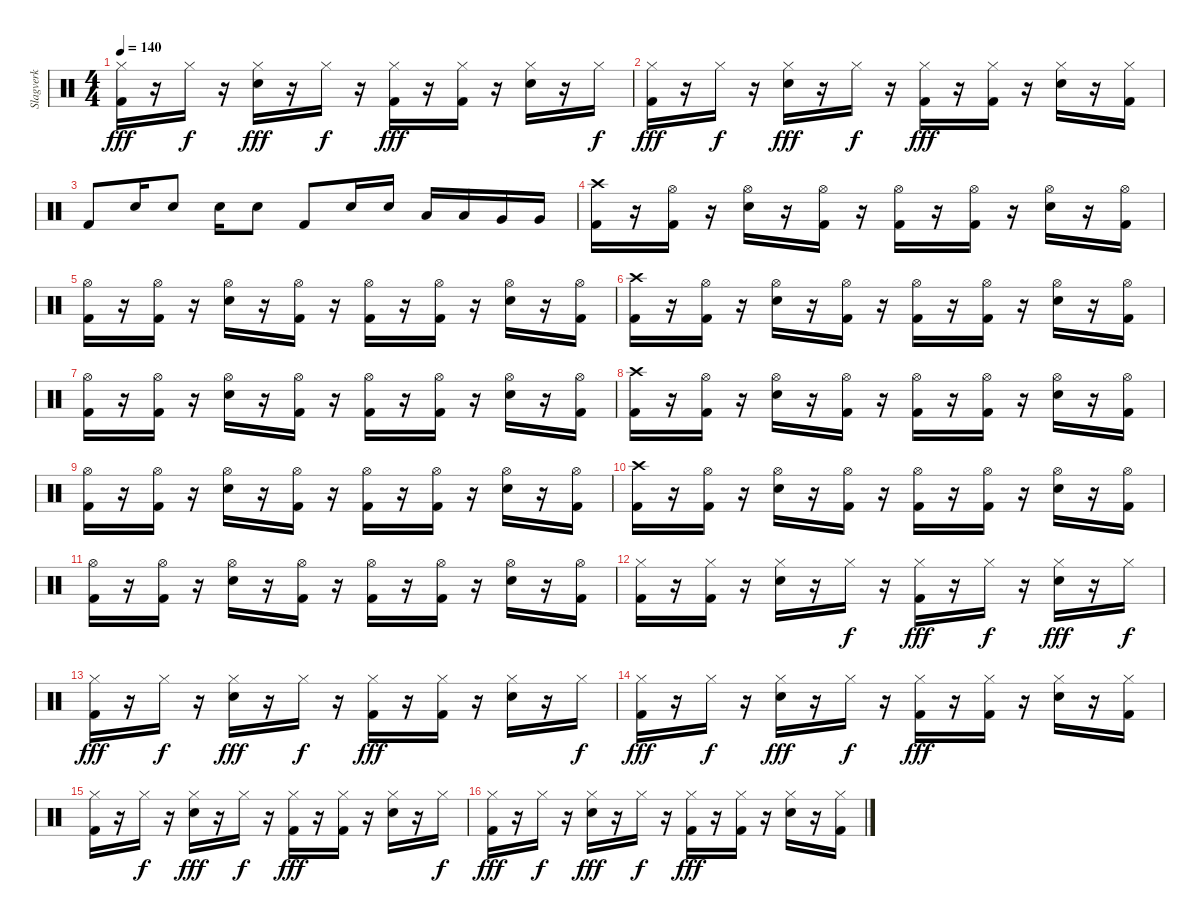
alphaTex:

\track ("Slagverk" "Slagverk") {instrument percussion}
\staff {score}
\articulation defaults
\ts (4 4)
\tempo 140
\clef neutral
\ks c
("Hi-Hat (closed)" "Kick (hit) 2").16{dy fff} r.16 "Hi-Hat (closed)".16{dy f} r.16 ("Hi-Hat (closed)" "Electric Snare (hit)").16{dy fff} r.16 "Hi-Hat (closed)".16{dy f} r.16 ("Hi-Hat (closed)" "Kick (hit) 2").16{dy fff} r.16 ("Hi-Hat (closed)" "Kick (hit) 2").16 r.16 ("Hi-Hat (closed)" "Electric Snare (hit)").16 r.16 "Hi-Hat (closed)".16{dy f} |
("Hi-Hat (closed)" "Kick (hit) 2").16{dy fff} r.16 "Hi-Hat (closed)".16{dy f} r.16 ("Hi-Hat (closed)" "Electric Snare (hit)").16{dy fff} r.16 "Hi-Hat (closed)".16{dy f} r.16 ("Hi-Hat (closed)" "Kick (hit) 2").16{dy fff} r.16 ("Hi-Hat (closed)" "Kick (hit) 2").16 r.16 ("Hi-Hat (closed)" "Electric Snare (hit)").16 r.16 ("Hi-Hat (closed)" "Kick (hit) 2").16 |
"Kick (hit) 2".8 "Electric Snare (hit)".16 "Electric Snare (hit)".8 "Electric Snare (hit)".16 "Electric Snare (hit)".8 "Kick (hit) 2".8 "Electric Snare (hit)".16 "Electric Snare (hit)".16 "Low Tom (hit)".16 "Low Tom (hit)".16 "Very Low Tom (hit)".16 "Very Low Tom (hit)".16 |
("Crash high (hit)" "Kick (hit) 2").16 r.16 ("Hi-Hat (open)" "Kick (hit) 2").16 r.16 ("Hi-Hat (open)" "Electric Snare (hit)").16 r.16 ("Hi-Hat (open)" "Kick (hit) 2").16 r.16 ("Hi-Hat (open)" "Kick (hit) 2").16 r.16 ("Hi-Hat (open)" "Kick (hit) 2").16 r.16 ("Hi-Hat (open)" "Electric Snare (hit)").16 r.16 ("Hi-Hat (open)" "Kick (hit) 2").16 |
("Hi-Hat (open)" "Kick (hit) 2").16 r.16 ("Hi-Hat (open)" "Kick (hit) 2").16 r.16 ("Hi-Hat (open)" "Electric Snare (hit)").16 r.16 ("Hi-Hat (open)" "Kick (hit) 2").16 r.16 ("Hi-Hat (open)" "Kick (hit) 2").16 r.16 ("Hi-Hat (open)" "Kick (hit) 2").16 r.16 ("Hi-Hat (open)" "Electric Snare (hit)").16 r.16 ("Hi-Hat (open)" "Kick (hit) 2").16 |
("Crash high (hit)" "Kick (hit) 2").16 r.16 ("Hi-Hat (open)" "Kick (hit) 2").16 r.16 ("Hi-Hat (open)" "Electric Snare (hit)").16 r.16 ("Hi-Hat (open)" "Kick (hit) 2").16 r.16 ("Hi-Hat (open)" "Kick (hit) 2").16 r.16 ("Hi-Hat (open)" "Kick (hit) 2").16 r.16 ("Hi-Hat (open)" "Electric Snare (hit)").16 r.16 ("Hi-Hat (open)" "Kick (hit) 2").16 |
("Hi-Hat (open)" "Kick (hit) 2").16 r.16 ("Hi-Hat (open)" "Kick (hit) 2").16 r.16 ("Hi-Hat (open)" "Electric Snare (hit)").16 r.16 ("Hi-Hat (open)" "Kick (hit) 2").16 r.16 ("Hi-Hat (open)" "Kick (hit) 2").16 r.16 ("Hi-Hat (open)" "Kick (hit) 2").16 r.16 ("Hi-Hat (open)" "Electric Snare (hit)").16 r.16 ("Hi-Hat (open)" "Kick (hit) 2").16 |
("Crash high (hit)" "Kick (hit) 2").16 r.16 ("Hi-Hat (open)" "Kick (hit) 2").16 r.16 ("Hi-Hat (open)" "Electric Snare (hit)").16 r.16 ("Hi-Hat (open)" "Kick (hit) 2").16 r.16 ("Hi-Hat (open)" "Kick (hit) 2").16 r.16 ("Hi-Hat (open)" "Kick (hit) 2").16 r.16 ("Hi-Hat (open)" "Electric Snare (hit)").16 r.16 ("Hi-Hat (open)" "Kick (hit) 2").16 |
("Hi-Hat (open)" "Kick (hit) 2").16 r.16 ("Hi-Hat (open)" "Kick (hit) 2").16 r.16 ("Hi-Hat (open)" "Electric Snare (hit)").16 r.16 ("Hi-Hat (open)" "Kick (hit) 2").16 r.16 ("Hi-Hat (open)" "Kick (hit) 2").16 r.16 ("Hi-Hat (open)" "Kick (hit) 2").16 r.16 ("Hi-Hat (open)" "Electric Snare (hit)").16 r.16 ("Hi-Hat (open)" "Kick (hit) 2").16 |
("Crash high (hit)" "Kick (hit) 2").16 r.16 ("Hi-Hat (open)" "Kick (hit) 2").16 r.16 ("Hi-Hat (open)" "Electric Snare (hit)").16 r.16 ("Hi-Hat (open)" "Kick (hit) 2").16 r.16 ("Hi-Hat (open)" "Kick (hit) 2").16 r.16 ("Hi-Hat (open)" "Kick (hit) 2").16 r.16 ("Hi-Hat (open)" "Electric Snare (hit)").16 r.16 ("Hi-Hat (open)" "Kick (hit) 2").16 |
("Hi-Hat (open)" "Kick (hit) 2").16 r.16 ("Hi-Hat (open)" "Kick (hit) 2").16 r.16 ("Hi-Hat (open)" "Electric Snare (hit)").16 r.16 ("Hi-Hat (open)" "Kick (hit) 2").16 r.16 ("Hi-Hat (open)" "Kick (hit) 2").16 r.16 ("Hi-Hat (open)" "Kick (hit) 2").16 r.16 ("Hi-Hat (open)" "Electric Snare (hit)").16 r.16 ("Hi-Hat (open)" "Kick (hit) 2").16 |
("Hi-Hat (closed)" "Kick (hit) 2").16 r.16 ("Hi-Hat (closed)" "Kick (hit) 2").16 r.16 ("Hi-Hat (closed)" "Electric Snare (hit)").16 r.16 "Hi-Hat (closed)".16{dy f} r.16 ("Hi-Hat (closed)" "Kick (hit) 2").16{dy fff} r.16 "Hi-Hat (closed)".16{dy f} r.16 ("Hi-Hat (closed)" "Electric Snare (hit)").16{dy fff} r.16 "Hi-Hat (closed)".16{dy f} |
("Hi-Hat (closed)" "Kick (hit) 2").16{dy fff} r.16 "Hi-Hat (closed)".16{dy f} r.16 ("Hi-Hat (closed)" "Electric Snare (hit)").16{dy fff} r.16 "Hi-Hat (closed)".16{dy f} r.16 ("Hi-Hat (closed)" "Kick (hit) 2").16{dy fff} r.16 ("Hi-Hat (closed)" "Kick (hit) 2").16 r.16 ("Hi-Hat (closed)" "Electric Snare (hit)").16 r.16 "Hi-Hat (closed)".16{dy f} |
("Hi-Hat (closed)" "Kick (hit) 2").16{dy fff} r.16 "Hi-Hat (closed)".16{dy f} r.16 ("Hi-Hat (closed)" "Electric Snare (hit)").16{dy fff} r.16 "Hi-Hat (closed)".16{dy f} r.16 ("Hi-Hat (closed)" "Kick (hit) 2").16{dy fff} r.16 ("Hi-Hat (closed)" "Kick (hit) 2").16 r.16 ("Hi-Hat (closed)" "Electric Snare (hit)").16 r.16 ("Hi-Hat (closed)" "Kick (hit) 2").16 |
("Hi-Hat (closed)" "Kick (hit) 2").16 r.16 "Hi-Hat (closed)".16{dy f} r.16 ("Hi-Hat (closed)" "Electric Snare (hit)").16{dy fff} r.16 "Hi-Hat (closed)".16{dy f} r.16 ("Hi-Hat (closed)" "Kick (hit) 2").16{dy fff} r.16 ("Hi-Hat (closed)" "Kick (hit) 2").16 r.16 ("Hi-Hat (closed)" "Electric Snare (hit)").16 r.16 "Hi-Hat (closed)".16{dy f} |
("Hi-Hat (closed)" "Kick (hit) 2").16{dy fff} r.16 "Hi-Hat (closed)".16{dy f} r.16 ("Hi-Hat (closed)" "Electric Snare (hit)").16{dy fff} r.16 "Hi-Hat (closed)".16{dy f} r.16 ("Hi-Hat (closed)" "Kick (hit) 2").16{dy fff} r.16 ("Hi-Hat (closed)" "Kick (hit) 2").16 r.16 ("Hi-Hat (closed)" "Electric Snare (hit)").16 r.16 ("Hi-Hat (closed)" "Kick (hit) 2").16
